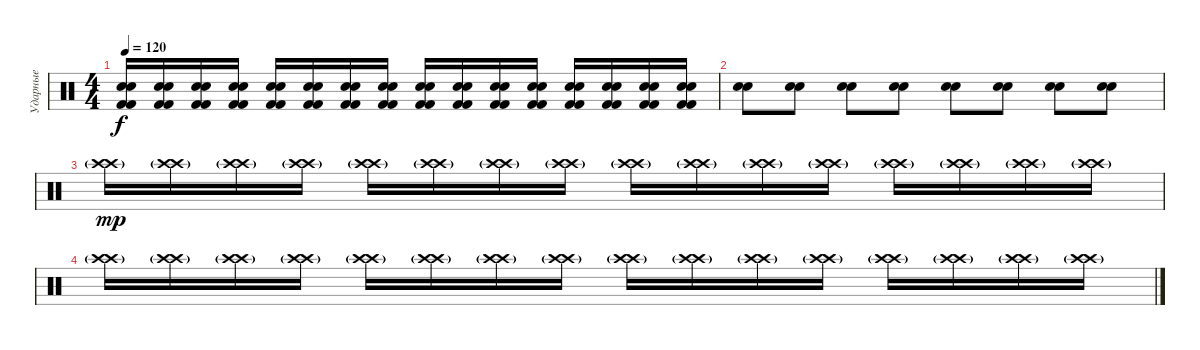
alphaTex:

\track ("Ударные" "Ударные") {instrument percussion}
\staff {score}
\articulation defaults
\ts (4 4)
\tempo 120
\clef neutral
\ks c
("Electric Snare (hit)" "Electric Snare (hit)" "Kick (hit) 2" "Kick (hit) 2").16{dy f} ("Electric Snare (hit)" "Electric Snare (hit)" "Kick (hit) 2" "Kick (hit) 2").16 ("Electric Snare (hit)" "Electric Snare (hit)" "Kick (hit) 2" "Kick (hit) 2").16 ("Electric Snare (hit)" "Electric Snare (hit)" "Kick (hit) 2" "Kick (hit) 2").16 ("Electric Snare (hit)" "Electric Snare (hit)" "Kick (hit) 2" "Kick (hit) 2").16 ("Electric Snare (hit)" "Electric Snare (hit)" "Kick (hit) 2" "Kick (hit) 2").16 ("Electric Snare (hit)" "Electric Snare (hit)" "Kick (hit) 2" "Kick (hit) 2").16 ("Electric Snare (hit)" "Electric Snare (hit)" "Kick (hit) 2" "Kick (hit) 2").16 ("Electric Snare (hit)" "Electric Snare (hit)" "Kick (hit) 2" "Kick (hit) 2").16 ("Electric Snare (hit)" "Electric Snare (hit)" "Kick (hit) 2" "Kick (hit) 2").16 ("Electric Snare (hit)" "Electric Snare (hit)" "Kick (hit) 2" "Kick (hit) 2").16 ("Electric Snare (hit)" "Electric Snare (hit)" "Kick (hit) 2" "Kick (hit) 2").16 ("Electric Snare (hit)" "Electric Snare (hit)" "Kick (hit) 2" "Kick (hit) 2").16 ("Electric Snare (hit)" "Electric Snare (hit)" "Kick (hit) 2" "Kick (hit) 2").16 ("Electric Snare (hit)" "Electric Snare (hit)" "Kick (hit) 2" "Kick (hit) 2").16 ("Electric Snare (hit)" "Electric Snare (hit)" "Kick (hit) 2" "Kick (hit) 2").16 |
("Electric Snare (hit)" "Electric Snare (hit)").8 ("Electric Snare (hit)" "Electric Snare (hit)").8 ("Electric Snare (hit)" "Electric Snare (hit)").8 ("Electric Snare (hit)" "Electric Snare (hit)").8 ("Electric Snare (hit)" "Electric Snare (hit)").8 ("Electric Snare (hit)" "Electric Snare (hit)").8 ("Electric Snare (hit)" "Electric Snare (hit)").8 ("Electric Snare (hit)" "Electric Snare (hit)").8 |
("Crash high (hit)" "Crash high (hit)"{g}).16{dy mp} ("Crash high (hit)" "Crash high (hit)"{g}).16 ("Crash high (hit)" "Crash high (hit)"{g}).16 ("Crash high (hit)" "Crash high (hit)"{g}).16 ("Crash high (hit)" "Crash high (hit)"{g}).16 ("Crash high (hit)" "Crash high (hit)"{g}).16 ("Crash high (hit)" "Crash high (hit)"{g}).16 ("Crash high (hit)" "Crash high (hit)"{g}).16 ("Crash high (hit)" "Crash high (hit)"{g}).16 ("Crash high (hit)" "Crash high (hit)"{g}).16 ("Crash high (hit)" "Crash high (hit)"{g}).16 ("Crash high (hit)" "Crash high (hit)"{g}).16 ("Crash high (hit)" "Crash high (hit)"{g}).16 ("Crash high (hit)" "Crash high (hit)"{g}).16 ("Crash high (hit)" "Crash high (hit)"{g}).16 ("Crash high (hit)" "Crash high (hit)"{g}).16 |
("Crash high (hit)" "Crash high (hit)"{g}).16 ("Crash high (hit)" "Crash high (hit)"{g}).16 ("Crash high (hit)" "Crash high (hit)"{g}).16 ("Crash high (hit)" "Crash high (hit)"{g}).16 ("Crash high (hit)" "Crash high (hit)"{g}).16 ("Crash high (hit)" "Crash high (hit)"{g}).16 ("Crash high (hit)" "Crash high (hit)"{g}).16 ("Crash high (hit)" "Crash high (hit)"{g}).16 ("Crash high (hit)" "Crash high (hit)"{g}).16 ("Crash high (hit)" "Crash high (hit)"{g}).16 ("Crash high (hit)" "Crash high (hit)"{g}).16 ("Crash high (hit)" "Crash high (hit)"{g}).16 ("Crash high (hit)" "Crash high (hit)"{g}).16 ("Crash high (hit)" "Crash high (hit)"{g}).16 ("Crash high (hit)" "Crash high (hit)"{g}).16 ("Crash high (hit)" "Crash high (hit)"{g}).16
